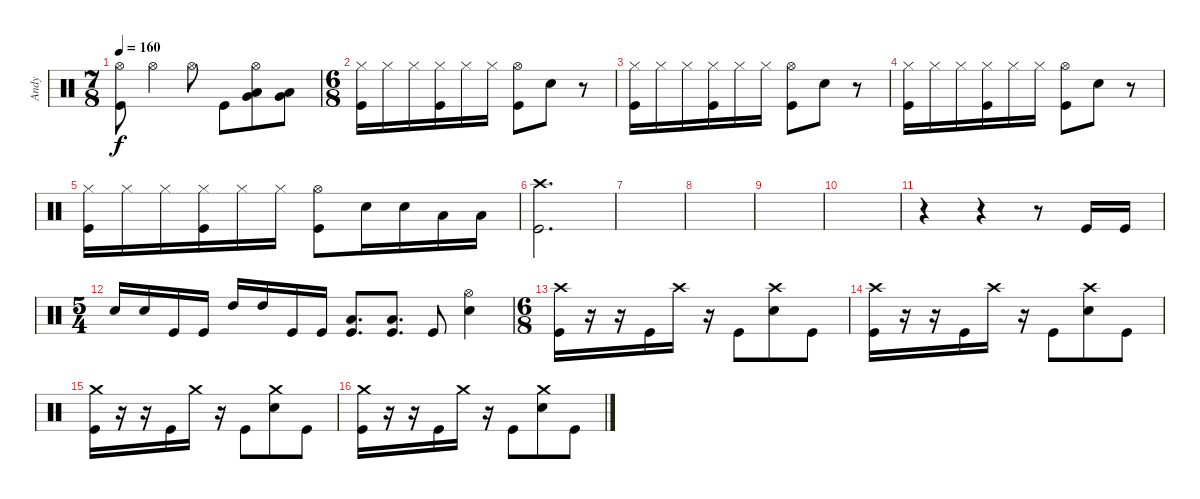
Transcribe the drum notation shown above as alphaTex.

\track ("Andy" "Andy") {instrument percussion}
\staff {score}
\articulation defaults
\ts (7 8)
\tempo 160
\clef neutral
\ks c
("Kick (hit)" "Hi-Hat (open)"{t}).8{dy f} "Hi-Hat (open)".4 "Hi-Hat (open)".8 "Kick (hit)".8 ("Very Low Tom (hit)" "Hi-Hat (open)" "Low Floor Tom (hit)").8 ("Very Low Tom (hit)" "Low Floor Tom (hit)").8 |
\ts (6 8)
("Hi-Hat (closed)" "Kick (hit)").16 "Hi-Hat (closed)".16 "Hi-Hat (closed)".16 ("Hi-Hat (closed)" "Kick (hit)").16 "Hi-Hat (closed)".16 "Hi-Hat (closed)".16 ("Hi-Hat (open)" "Kick (hit)").8 "Snare (hit) 2".8 r.8 |
("Hi-Hat (closed)" "Kick (hit)").16 "Hi-Hat (closed)".16 "Hi-Hat (closed)".16 ("Hi-Hat (closed)" "Kick (hit)").16 "Hi-Hat (closed)".16 "Hi-Hat (closed)".16 ("Hi-Hat (open)" "Kick (hit)").8 "Snare (hit) 2".8 r.8 |
("Hi-Hat (closed)" "Kick (hit)").16 "Hi-Hat (closed)".16 "Hi-Hat (closed)".16 ("Hi-Hat (closed)" "Kick (hit)").16 "Hi-Hat (closed)".16 "Hi-Hat (closed)".16 ("Hi-Hat (open)" "Kick (hit)").8 "Snare (hit) 2".8 r.8 |
("Hi-Hat (closed)" "Kick (hit)").16 "Hi-Hat (closed)".16 "Hi-Hat (closed)".16 ("Hi-Hat (closed)" "Kick (hit)").16 "Hi-Hat (closed)".16 "Hi-Hat (closed)".16 ("Hi-Hat (open)" "Kick (hit)").8 "Snare (hit) 2".16 "Snare (hit) 2".16 "Low Floor Tom (hit)".16 "Low Floor Tom (hit)".16 |
("Kick (hit)" "Crash high (hit)").2{d} |
|
|
|
|
r.4 r.4 r.8 "Kick (hit)".16 "Kick (hit)".16 |
\ts (5 4)
"Snare (hit) 2".16 "Snare (hit) 2".16 "Kick (hit)".16 "Kick (hit)".16 "High Tom (hit)".16 "High Tom (hit)".16 "Kick (hit)".16 "Kick (hit)".16 ("Low Floor Tom (hit)" "Kick (hit)").8{d} ("Low Floor Tom (hit)" "Kick (hit)").8{d} "Kick (hit)".8 ("Hi-Hat (open)" "Snare (hit) 2").4 |
\ts (6 8)
("Crash high (hit)" "Kick (hit)").16 r.16 r.16 "Kick (hit)".16 "Crash high (hit)".16 r.16 "Kick (hit)".8 ("Snare (hit) 2" "Crash high (hit)").8 "Kick (hit)".8 |
("Crash high (hit)" "Kick (hit)").16 r.16 r.16 "Kick (hit)".16 "Crash high (hit)".16 r.16 "Kick (hit)".8 ("Snare (hit) 2" "Crash high (hit)").8 "Kick (hit)".8 |
("Crash medium (hit)" "Kick (hit)").16 r.16 r.16 "Kick (hit)".16 "Crash medium (hit)".16 r.16 "Kick (hit)".8 ("Snare (hit) 2" "Crash medium (hit)").8 "Kick (hit)".8 |
("Crash medium (hit)" "Kick (hit)").16 r.16 r.16 "Kick (hit)".16 "Crash medium (hit)".16 r.16 "Kick (hit)".8 ("Snare (hit) 2" "Crash medium (hit)").8 "Kick (hit)".8
